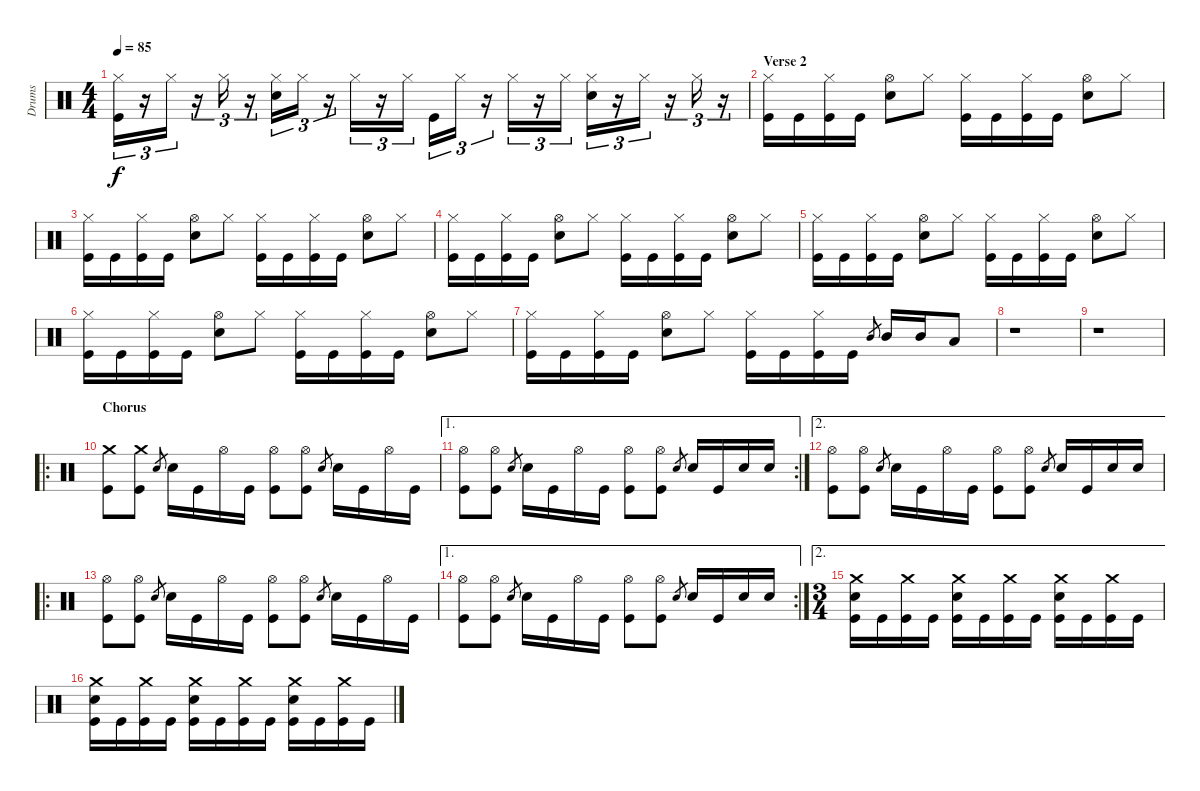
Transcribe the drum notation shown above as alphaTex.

\track ("Drums" "Drums") {instrument percussion}
\staff {score}
\articulation defaults
\ts (4 4)
\tempo 85
\clef neutral
\ks c
("Hi-Hat (closed)" "Kick (hit)").16{tu (3 2) dy f} r.16{tu (3 2)} "Hi-Hat (closed)".16{tu (3 2)} r.16{tu (3 2)} "Hi-Hat (closed)".16{tu (3 2)} r.16{tu (3 2)} ("Hi-Hat (closed)" "Snare (hit) 2").16{tu (3 2)} "Hi-Hat (closed)".16{tu (3 2)} r.16{tu (3 2)} "Hi-Hat (closed)".16{tu (3 2)} r.16{tu (3 2)} "Hi-Hat (closed)".16{tu (3 2)} "Kick (hit)".16{tu (3 2)} "Hi-Hat (closed)".16{tu (3 2)} r.16{tu (3 2)} "Hi-Hat (closed)".16{tu (3 2)} r.16{tu (3 2)} "Hi-Hat (closed)".16{tu (3 2)} ("Hi-Hat (closed)" "Snare (hit) 2").16{tu (3 2)} r.16{tu (3 2)} "Hi-Hat (closed)".16{tu (3 2)} r.16{tu (3 2)} "Hi-Hat (closed)".16{tu (3 2)} r.16{tu (3 2)} |
\section ("" "Verse 2")
("Hi-Hat (closed)" "Kick (hit)").16 "Kick (hit)".16 ("Hi-Hat (closed)" "Kick (hit)").16 "Kick (hit)".16 ("Hi-Hat (open)" "Snare (hit) 2").8 "Hi-Hat (closed)".8 ("Hi-Hat (closed)" "Kick (hit)").16 "Kick (hit)".16 ("Hi-Hat (closed)" "Kick (hit)").16 "Kick (hit)".16 ("Hi-Hat (open)" "Snare (hit) 2").8 "Hi-Hat (closed)".8 |
("Hi-Hat (closed)" "Kick (hit)").16 "Kick (hit)".16 ("Hi-Hat (closed)" "Kick (hit)").16 "Kick (hit)".16 ("Hi-Hat (open)" "Snare (hit) 2").8 "Hi-Hat (closed)".8 ("Hi-Hat (closed)" "Kick (hit)").16 "Kick (hit)".16 ("Hi-Hat (closed)" "Kick (hit)").16 "Kick (hit)".16 ("Hi-Hat (open)" "Snare (hit) 2").8 "Hi-Hat (closed)".8 |
("Hi-Hat (closed)" "Kick (hit)").16 "Kick (hit)".16 ("Hi-Hat (closed)" "Kick (hit)").16 "Kick (hit)".16 ("Hi-Hat (open)" "Snare (hit) 2").8 "Hi-Hat (closed)".8 ("Hi-Hat (closed)" "Kick (hit)").16 "Kick (hit)".16 ("Hi-Hat (closed)" "Kick (hit)").16 "Kick (hit)".16 ("Hi-Hat (open)" "Snare (hit) 2").8 "Hi-Hat (closed)".8 |
("Hi-Hat (closed)" "Kick (hit)").16 "Kick (hit)".16 ("Hi-Hat (closed)" "Kick (hit)").16 "Kick (hit)".16 ("Hi-Hat (open)" "Snare (hit) 2").8 "Hi-Hat (closed)".8 ("Hi-Hat (closed)" "Kick (hit)").16 "Kick (hit)".16 ("Hi-Hat (closed)" "Kick (hit)").16 "Kick (hit)".16 ("Hi-Hat (open)" "Snare (hit) 2").8 "Hi-Hat (closed)".8 |
("Hi-Hat (closed)" "Kick (hit)").16 "Kick (hit)".16 ("Hi-Hat (closed)" "Kick (hit)").16 "Kick (hit)".16 ("Hi-Hat (open)" "Snare (hit) 2").8 "Hi-Hat (closed)".8 ("Hi-Hat (closed)" "Kick (hit)").16 "Kick (hit)".16 ("Hi-Hat (closed)" "Kick (hit)").16 "Kick (hit)".16 ("Hi-Hat (open)" "Snare (hit) 2").8 "Hi-Hat (closed)".8 |
("Hi-Hat (closed)" "Kick (hit)").16 "Kick (hit)".16 ("Hi-Hat (closed)" "Kick (hit)").16 "Kick (hit)".16 ("Hi-Hat (open)" "Snare (hit) 2").8 "Hi-Hat (closed)".8 ("Hi-Hat (closed)" "Kick (hit)").16 "Kick (hit)".16 ("Hi-Hat (closed)" "Kick (hit)").16 "Kick (hit)".16 "Mid Tom (hit)".8{gr} "Mid Tom (hit)".16 "Mid Tom (hit)".16 "Low Tom (hit)".8 |
r.1 |
r.1 |
\ro
\section ("" "Chorus ")
("Crash medium (hit)" "Kick (hit)").8 ("Crash medium (hit)" "Kick (hit)").8 "Snare (hit) 2".8{gr} "Snare (hit) 2".16 "Kick (hit)".16 "Hi-Hat (open)".16 "Kick (hit)".16 ("Hi-Hat (open)" "Kick (hit)").8 ("Hi-Hat (open)" "Kick (hit)").8 "Snare (hit) 2".8{gr} "Snare (hit) 2".16 "Kick (hit)".16 "Hi-Hat (open)".16 "Kick (hit)".16 |
\ae 1
\rc 2
("Hi-Hat (open)" "Kick (hit)").8 ("Hi-Hat (open)" "Kick (hit)").8 "Snare (hit) 2".8{gr} "Snare (hit) 2".16 "Kick (hit)".16 "Hi-Hat (open)".16 "Kick (hit)".16 ("Hi-Hat (open)" "Kick (hit)").8 ("Hi-Hat (open)" "Kick (hit)").8 "Snare (hit) 2".8{gr} "Snare (hit) 2".16 "Kick (hit)".16 "Snare (hit) 2".16 "Snare (hit) 2".16 |
\ae 2
("Hi-Hat (open)" "Kick (hit)").8 ("Hi-Hat (open)" "Kick (hit)").8 "Snare (hit) 2".8{gr} "Snare (hit) 2".16 "Kick (hit)".16 "Hi-Hat (open)".16 "Kick (hit)".16 ("Hi-Hat (open)" "Kick (hit)").8 ("Hi-Hat (open)" "Kick (hit)").8 "Snare (hit) 2".8{gr} "Snare (hit) 2".16 "Kick (hit)".16 "Snare (hit) 2".16 "Snare (hit) 2".16 |
\ro
("Hi-Hat (open)" "Kick (hit)").8 ("Hi-Hat (open)" "Kick (hit)").8 "Snare (hit) 2".8{gr} "Snare (hit) 2".16 "Kick (hit)".16 "Hi-Hat (open)".16 "Kick (hit)".16 ("Hi-Hat (open)" "Kick (hit)").8 ("Hi-Hat (open)" "Kick (hit)").8 "Snare (hit) 2".8{gr} "Snare (hit) 2".16 "Kick (hit)".16 "Hi-Hat (open)".16 "Kick (hit)".16 |
\ae 1
\rc 2
("Hi-Hat (open)" "Kick (hit)").8 ("Hi-Hat (open)" "Kick (hit)").8 "Snare (hit) 2".8{gr} "Snare (hit) 2".16 "Kick (hit)".16 "Hi-Hat (open)".16 "Kick (hit)".16 ("Hi-Hat (open)" "Kick (hit)").8 ("Hi-Hat (open)" "Kick (hit)").8 "Snare (hit) 2".8{gr} "Snare (hit) 2".16 "Kick (hit)".16 "Snare (hit) 2".16 "Snare (hit) 2".16 |
\ae 2
\ts (3 4)
("Crash medium (hit)" "Snare (hit) 2" "Kick (hit)").16 "Kick (hit)".16 ("Crash medium (hit)" "Kick (hit)").16 "Kick (hit)".16 ("Crash medium (hit)" "Snare (hit) 2" "Kick (hit)").16 "Kick (hit)".16 ("Crash medium (hit)" "Kick (hit)").16 "Kick (hit)".16 ("Crash medium (hit)" "Snare (hit) 2" "Kick (hit)").16 "Kick (hit)".16 ("Crash medium (hit)" "Kick (hit)").16 "Kick (hit)".16 |
("Crash medium (hit)" "Snare (hit) 2" "Kick (hit)").16 "Kick (hit)".16 ("Crash medium (hit)" "Kick (hit)").16 "Kick (hit)".16 ("Crash medium (hit)" "Snare (hit) 2" "Kick (hit)").16 "Kick (hit)".16 ("Crash medium (hit)" "Kick (hit)").16 "Kick (hit)".16 ("Crash medium (hit)" "Snare (hit) 2" "Kick (hit)").16 "Kick (hit)".16 ("Crash medium (hit)" "Kick (hit)").16 "Kick (hit)".16
